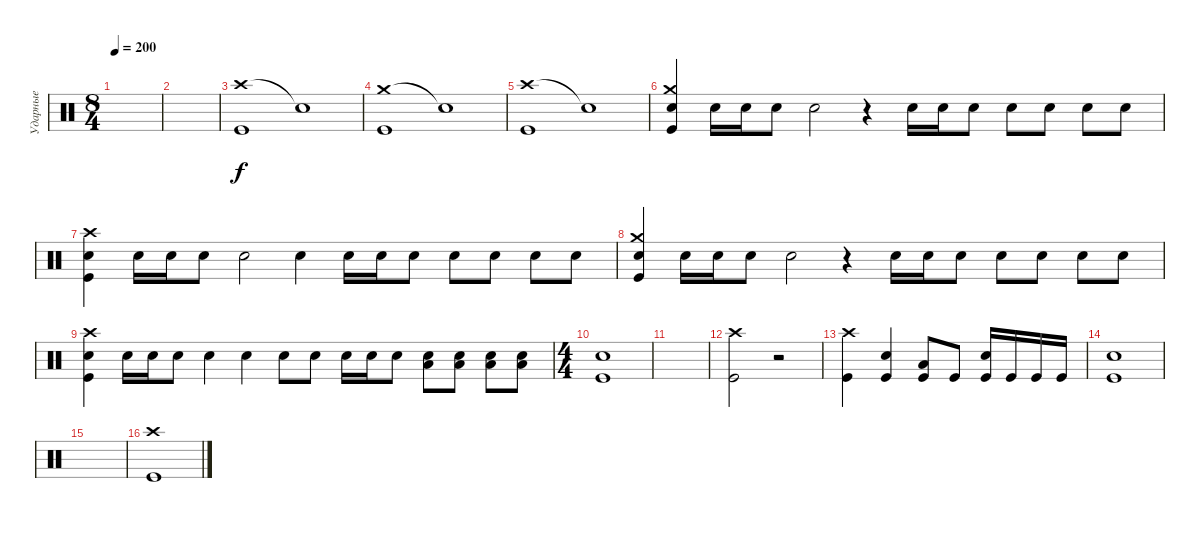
\track ("Ударные" "Ударные") {instrument percussion}
\staff {score}
\articulation defaults
\ts (8 4)
\tempo 200
\clef neutral
\ks c
|
|
("Crash high (hit)" "Kick (hit)").1 "Snare (hit)"{t}.1 |
("Crash medium (hit)" "Kick (hit)").1 "Snare (hit)"{t}.1 |
("Crash high (hit)" "Kick (hit)").1 "Snare (hit)"{t}.1 |
("Crash medium (hit)" "Electric Snare (hit)" "Kick (hit)").4 "Electric Snare (hit)".16 "Electric Snare (hit)".16 "Electric Snare (hit)".8 "Electric Snare (hit)".2 r.4 "Electric Snare (hit)".16 "Electric Snare (hit)".16 "Electric Snare (hit)".8 "Electric Snare (hit)".8 "Electric Snare (hit)".8 "Electric Snare (hit)".8 "Electric Snare (hit)".8 |
("Crash high (hit)" "Electric Snare (hit)" "Kick (hit)").4 "Electric Snare (hit)".16 "Electric Snare (hit)".16 "Electric Snare (hit)".8 "Electric Snare (hit)".2 "Electric Snare (hit)".4 "Electric Snare (hit)".16 "Electric Snare (hit)".16 "Electric Snare (hit)".8 "Electric Snare (hit)".8 "Electric Snare (hit)".8 "Electric Snare (hit)".8 "Electric Snare (hit)".8 |
("Crash medium (hit)" "Electric Snare (hit)" "Kick (hit)").4 "Electric Snare (hit)".16 "Electric Snare (hit)".16 "Electric Snare (hit)".8 "Electric Snare (hit)".2 r.4 "Electric Snare (hit)".16 "Electric Snare (hit)".16 "Electric Snare (hit)".8 "Electric Snare (hit)".8 "Electric Snare (hit)".8 "Electric Snare (hit)".8 "Electric Snare (hit)".8 |
("Crash high (hit)" "Electric Snare (hit)" "Kick (hit)").4 "Electric Snare (hit)".16 "Electric Snare (hit)".16 "Electric Snare (hit)".8 "Electric Snare (hit)".4 "Electric Snare (hit)".4 "Electric Snare (hit)".8 "Electric Snare (hit)".8 "Electric Snare (hit)".16 "Electric Snare (hit)".16 "Electric Snare (hit)".8 ("Electric Snare (hit)" "Low Tom (hit)").8 ("Electric Snare (hit)" "Low Tom (hit)").8 ("Electric Snare (hit)" "Low Tom (hit)").8 ("Electric Snare (hit)" "Low Tom (hit)").8 |
\ts (4 4)
("Electric Snare (hit)" "Kick (hit)").1 |
|
("Crash high (hit)" "Kick (hit)").2 r.2 |
("Crash high (hit)" "Kick (hit)").4 ("Electric Snare (hit)" "Kick (hit)").4 ("Low Tom (hit)" "Kick (hit)").8 "Kick (hit)".8 ("Electric Snare (hit)" "Kick (hit)").16 "Kick (hit)".16 "Kick (hit)".16 "Kick (hit)".16 |
("Electric Snare (hit)" "Kick (hit)").1 |
|
("Crash high (hit)" "Kick (hit)").1
